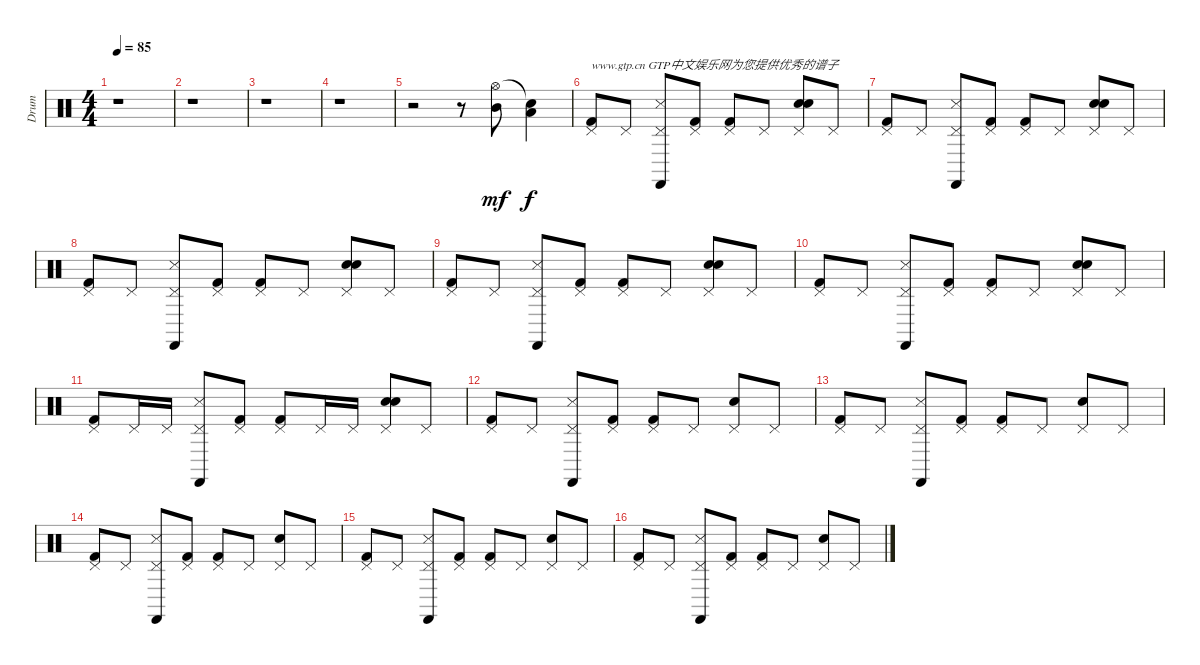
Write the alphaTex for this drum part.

\track ("Drum" "Drum") {instrument percussion}
\staff {score}
\articulation defaults
\ts (4 4)
\tempo 85
\clef neutral
\ks c
r.1{dy mf} |
r.1 |
r.1 |
r.1 |
r.2 r.8 ("Hi-Hat (open)" "Mid Tom (hit)").8 ("Snare (hit)"{t} "Low Floor Tom (hit)").4{dy f} |
("Pedal Hi-Hat (hit)" "Kick (hit) 2").8{txt "www.gtp.cn GTP中文娱乐网为您提供优秀的谱子"} "Pedal Hi-Hat (hit)".8 ("Pedal Hi-Hat (hit)" "Metronome (hit)" "Castanets (hit)").8 ("Pedal Hi-Hat (hit)" "Kick (hit) 2").8 ("Pedal Hi-Hat (hit)" "Kick (hit) 2").8 "Pedal Hi-Hat (hit)".8 ("Pedal Hi-Hat (hit)" "Hand Clap (hit)" "Snare (hit) 2").8 "Pedal Hi-Hat (hit)".8 |
("Pedal Hi-Hat (hit)" "Kick (hit) 2").8 "Pedal Hi-Hat (hit)".8 ("Pedal Hi-Hat (hit)" "Metronome (hit)" "Castanets (hit)").8 ("Pedal Hi-Hat (hit)" "Kick (hit) 2").8 ("Pedal Hi-Hat (hit)" "Kick (hit) 2").8 "Pedal Hi-Hat (hit)".8 ("Pedal Hi-Hat (hit)" "Hand Clap (hit)" "Snare (hit) 2").8 "Pedal Hi-Hat (hit)".8 |
("Pedal Hi-Hat (hit)" "Kick (hit) 2").8 "Pedal Hi-Hat (hit)".8 ("Pedal Hi-Hat (hit)" "Metronome (hit)" "Castanets (hit)").8 ("Pedal Hi-Hat (hit)" "Kick (hit) 2").8 ("Pedal Hi-Hat (hit)" "Kick (hit) 2").8 "Pedal Hi-Hat (hit)".8 ("Pedal Hi-Hat (hit)" "Hand Clap (hit)" "Snare (hit) 2").8 "Pedal Hi-Hat (hit)".8 |
("Pedal Hi-Hat (hit)" "Kick (hit) 2").8 "Pedal Hi-Hat (hit)".8 ("Pedal Hi-Hat (hit)" "Metronome (hit)" "Castanets (hit)").8 ("Pedal Hi-Hat (hit)" "Kick (hit) 2").8 ("Pedal Hi-Hat (hit)" "Kick (hit) 2").8 "Pedal Hi-Hat (hit)".8 ("Pedal Hi-Hat (hit)" "Hand Clap (hit)" "Snare (hit) 2").8 "Pedal Hi-Hat (hit)".8 |
("Pedal Hi-Hat (hit)" "Kick (hit) 2").8 "Pedal Hi-Hat (hit)".8 ("Pedal Hi-Hat (hit)" "Metronome (hit)" "Castanets (hit)").8 ("Pedal Hi-Hat (hit)" "Kick (hit) 2").8 ("Pedal Hi-Hat (hit)" "Kick (hit) 2").8 "Pedal Hi-Hat (hit)".8 ("Pedal Hi-Hat (hit)" "Hand Clap (hit)" "Snare (hit) 2").8 "Pedal Hi-Hat (hit)".8 |
("Pedal Hi-Hat (hit)" "Kick (hit) 2").8 "Pedal Hi-Hat (hit)".16 "Pedal Hi-Hat (hit)".16 ("Pedal Hi-Hat (hit)" "Metronome (hit)" "Castanets (hit)").8 ("Pedal Hi-Hat (hit)" "Kick (hit) 2").8 ("Pedal Hi-Hat (hit)" "Kick (hit) 2").8 "Pedal Hi-Hat (hit)".16 "Pedal Hi-Hat (hit)".16 ("Pedal Hi-Hat (hit)" "Hand Clap (hit)" "Snare (hit) 2").8 "Pedal Hi-Hat (hit)".8 |
("Pedal Hi-Hat (hit)" "Kick (hit) 2").8 "Pedal Hi-Hat (hit)".8 ("Pedal Hi-Hat (hit)" "Metronome (hit)" "Castanets (hit)").8 ("Pedal Hi-Hat (hit)" "Kick (hit) 2").8 ("Pedal Hi-Hat (hit)" "Kick (hit) 2").8 "Pedal Hi-Hat (hit)".8 ("Pedal Hi-Hat (hit)" "Hand Clap (hit)").8 "Pedal Hi-Hat (hit)".8 |
("Pedal Hi-Hat (hit)" "Kick (hit) 2").8 "Pedal Hi-Hat (hit)".8 ("Pedal Hi-Hat (hit)" "Metronome (hit)" "Castanets (hit)").8 ("Pedal Hi-Hat (hit)" "Kick (hit) 2").8 ("Pedal Hi-Hat (hit)" "Kick (hit) 2").8 "Pedal Hi-Hat (hit)".8 ("Pedal Hi-Hat (hit)" "Hand Clap (hit)").8 "Pedal Hi-Hat (hit)".8 |
("Pedal Hi-Hat (hit)" "Kick (hit) 2").8 "Pedal Hi-Hat (hit)".8 ("Pedal Hi-Hat (hit)" "Metronome (hit)" "Castanets (hit)").8 ("Pedal Hi-Hat (hit)" "Kick (hit) 2").8 ("Pedal Hi-Hat (hit)" "Kick (hit) 2").8 "Pedal Hi-Hat (hit)".8 ("Pedal Hi-Hat (hit)" "Hand Clap (hit)").8 "Pedal Hi-Hat (hit)".8 |
("Pedal Hi-Hat (hit)" "Kick (hit) 2").8 "Pedal Hi-Hat (hit)".8 ("Pedal Hi-Hat (hit)" "Metronome (hit)" "Castanets (hit)").8 ("Pedal Hi-Hat (hit)" "Kick (hit) 2").8 ("Pedal Hi-Hat (hit)" "Kick (hit) 2").8 "Pedal Hi-Hat (hit)".8 ("Pedal Hi-Hat (hit)" "Hand Clap (hit)").8 "Pedal Hi-Hat (hit)".8 |
("Pedal Hi-Hat (hit)" "Kick (hit) 2").8 "Pedal Hi-Hat (hit)".8 ("Pedal Hi-Hat (hit)" "Metronome (hit)" "Castanets (hit)").8 ("Pedal Hi-Hat (hit)" "Kick (hit) 2").8 ("Pedal Hi-Hat (hit)" "Kick (hit) 2").8 "Pedal Hi-Hat (hit)".8 ("Pedal Hi-Hat (hit)" "Hand Clap (hit)").8 "Pedal Hi-Hat (hit)".8
